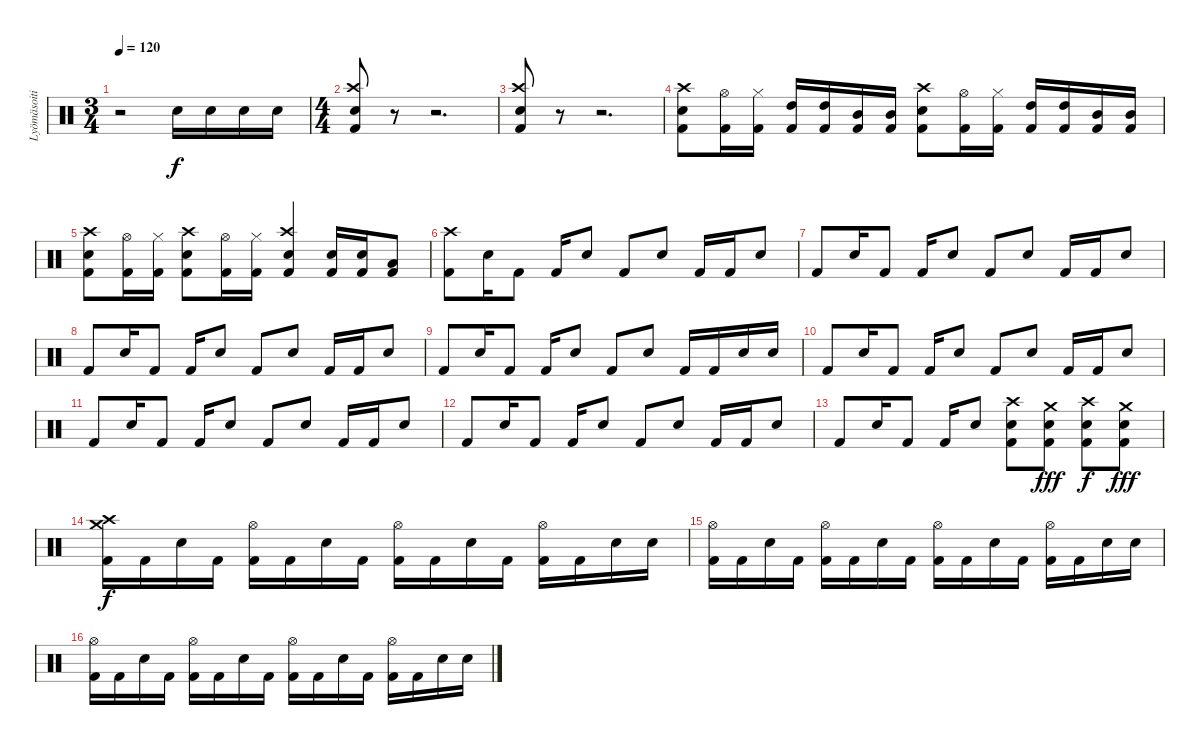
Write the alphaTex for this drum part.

\track ("Lyömäsoitin" "Lyömäsoiti") {instrument percussion}
\staff {score}
\articulation defaults
\ts (3 4)
\tempo 120
\clef neutral
\ks c
r.2{dy f} "Electric Snare (hit)".16 "Electric Snare (hit)".16 "Electric Snare (hit)".16 "Electric Snare (hit)".16 |
\ts (4 4)
("Crash high (hit)" "Electric Snare (hit)" "Kick (hit) 2").8 r.8 r.2{d} |
("Crash high (hit)" "Electric Snare (hit)" "Kick (hit) 2").8 r.8 r.2{d} |
("Crash high (hit)" "Electric Snare (hit)" "Kick (hit) 2").8 ("Hi-Hat (open)" "Kick (hit) 2").16 ("Hi-Hat (closed)" "Kick (hit) 2").16 ("High Tom (hit)" "Kick (hit) 2").16 ("High Tom (hit)" "Kick (hit) 2").16 ("Mid Tom (hit)" "Kick (hit) 2").16 ("Mid Tom (hit)" "Kick (hit) 2").16 ("Crash high (hit)" "Electric Snare (hit)" "Kick (hit) 2").8 ("Hi-Hat (open)" "Kick (hit) 2").16 ("Hi-Hat (closed)" "Kick (hit) 2").16 ("High Tom (hit)" "Kick (hit) 2").16 ("High Tom (hit)" "Kick (hit) 2").16 ("Mid Tom (hit)" "Kick (hit) 2").16 ("Mid Tom (hit)" "Kick (hit) 2").16 |
("Crash high (hit)" "Electric Snare (hit)" "Kick (hit) 2").8 ("Hi-Hat (open)" "Kick (hit) 2").16 ("Hi-Hat (closed)" "Kick (hit) 2").16 ("Crash high (hit)" "Electric Snare (hit)" "Kick (hit) 2").8 ("Hi-Hat (open)" "Kick (hit) 2").16 ("Hi-Hat (closed)" "Kick (hit) 2").16 ("Crash high (hit)" "Electric Snare (hit)" "Kick (hit) 2").4 ("Electric Snare (hit)" "Kick (hit) 2").16 ("Electric Snare (hit)" "Kick (hit) 2").16 ("Kick (hit) 2" "Low Tom (hit)").8 |
("Crash high (hit)" "Kick (hit) 2").8 "Electric Snare (hit)".16 "Kick (hit) 2".8 "Kick (hit) 2".16 "Electric Snare (hit)".8 "Kick (hit) 2".8 "Electric Snare (hit)".8 "Kick (hit) 2".16 "Kick (hit) 2".16 "Electric Snare (hit)".8 |
"Kick (hit) 2".8 "Electric Snare (hit)".16 "Kick (hit) 2".8 "Kick (hit) 2".16 "Electric Snare (hit)".8 "Kick (hit) 2".8 "Electric Snare (hit)".8 "Kick (hit) 2".16 "Kick (hit) 2".16 "Electric Snare (hit)".8 |
"Kick (hit) 2".8 "Electric Snare (hit)".16 "Kick (hit) 2".8 "Kick (hit) 2".16 "Electric Snare (hit)".8 "Kick (hit) 2".8 "Electric Snare (hit)".8 "Kick (hit) 2".16 "Kick (hit) 2".16 "Electric Snare (hit)".8 |
"Kick (hit) 2".8 "Electric Snare (hit)".16 "Kick (hit) 2".8 "Kick (hit) 2".16 "Electric Snare (hit)".8 "Kick (hit) 2".8 "Electric Snare (hit)".8 "Kick (hit) 2".16 "Kick (hit) 2".16 "Electric Snare (hit)".16 "Electric Snare (hit)".16 |
"Kick (hit) 2".8 "Electric Snare (hit)".16 "Kick (hit) 2".8 "Kick (hit) 2".16 "Electric Snare (hit)".8 "Kick (hit) 2".8 "Electric Snare (hit)".8 "Kick (hit) 2".16 "Kick (hit) 2".16 "Electric Snare (hit)".8 |
"Kick (hit) 2".8 "Electric Snare (hit)".16 "Kick (hit) 2".8 "Kick (hit) 2".16 "Electric Snare (hit)".8 "Kick (hit) 2".8 "Electric Snare (hit)".8 "Kick (hit) 2".16 "Kick (hit) 2".16 "Electric Snare (hit)".8 |
"Kick (hit) 2".8 "Electric Snare (hit)".16 "Kick (hit) 2".8 "Kick (hit) 2".16 "Electric Snare (hit)".8 "Kick (hit) 2".8 "Electric Snare (hit)".8 "Kick (hit) 2".16 "Kick (hit) 2".16 "Electric Snare (hit)".8 |
"Kick (hit) 2".8 "Electric Snare (hit)".16 "Kick (hit) 2".8 "Kick (hit) 2".16 "Electric Snare (hit)".8 ("Crash high (hit)" "Electric Snare (hit)" "Kick (hit) 2").8 ("Crash medium (hit)" "Electric Snare (hit)" "Kick (hit) 2").8{dy fff} ("Crash high (hit)" "Electric Snare (hit)" "Kick (hit) 2").8{dy f} ("Crash medium (hit)" "Electric Snare (hit)" "Kick (hit) 2").8{dy fff} |
("Crash medium (hit)" "Crash high (hit)" "Kick (hit) 2").16{dy f} "Kick (hit) 2".16 "Electric Snare (hit)".16 "Kick (hit) 2".16 ("Hi-Hat (open)" "Kick (hit) 2").16 "Kick (hit) 2".16 "Electric Snare (hit)".16 "Kick (hit) 2".16 ("Hi-Hat (open)" "Kick (hit) 2").16 "Kick (hit) 2".16 "Electric Snare (hit)".16 "Kick (hit) 2".16 ("Hi-Hat (open)" "Kick (hit) 2").16 "Kick (hit) 2".16 "Electric Snare (hit)".16 "Electric Snare (hit)".16 |
("Hi-Hat (open)" "Kick (hit) 2").16 "Kick (hit) 2".16 "Electric Snare (hit)".16 "Kick (hit) 2".16 ("Hi-Hat (open)" "Kick (hit) 2").16 "Kick (hit) 2".16 "Electric Snare (hit)".16 "Kick (hit) 2".16 ("Hi-Hat (open)" "Kick (hit) 2").16 "Kick (hit) 2".16 "Electric Snare (hit)".16 "Kick (hit) 2".16 ("Hi-Hat (open)" "Kick (hit) 2").16 "Kick (hit) 2".16 "Electric Snare (hit)".16 "Electric Snare (hit)".16 |
("Hi-Hat (open)" "Kick (hit) 2").16 "Kick (hit) 2".16 "Electric Snare (hit)".16 "Kick (hit) 2".16 ("Hi-Hat (open)" "Kick (hit) 2").16 "Kick (hit) 2".16 "Electric Snare (hit)".16 "Kick (hit) 2".16 ("Hi-Hat (open)" "Kick (hit) 2").16 "Kick (hit) 2".16 "Electric Snare (hit)".16 "Kick (hit) 2".16 ("Hi-Hat (open)" "Kick (hit) 2").16 "Kick (hit) 2".16 "Electric Snare (hit)".16 "Electric Snare (hit)".16
